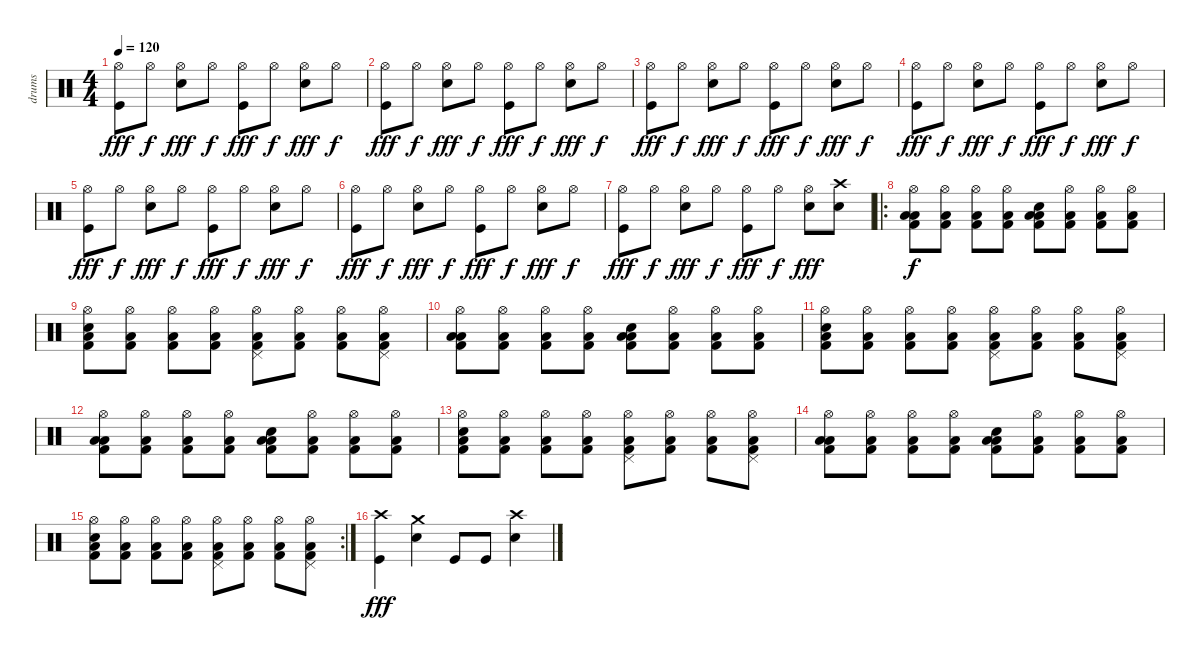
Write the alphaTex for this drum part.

\track ("drums" "drums") {instrument percussion}
\staff {score}
\articulation defaults
\ts (4 4)
\tempo 120
\clef neutral
\ks c
("Hi-Hat (open)" "Kick (hit)").8{dy fff} "Hi-Hat (open)".8{dy f} ("Hi-Hat (open)" "Snare (hit) 2").8{dy fff} "Hi-Hat (open)".8{dy f} ("Hi-Hat (open)" "Kick (hit)").8{dy fff} "Hi-Hat (open)".8{dy f} ("Hi-Hat (open)" "Snare (hit) 2").8{dy fff} "Hi-Hat (open)".8{dy f} |
("Hi-Hat (open)" "Kick (hit)").8{dy fff} "Hi-Hat (open)".8{dy f} ("Hi-Hat (open)" "Snare (hit) 2").8{dy fff} "Hi-Hat (open)".8{dy f} ("Hi-Hat (open)" "Kick (hit)").8{dy fff} "Hi-Hat (open)".8{dy f} ("Hi-Hat (open)" "Snare (hit) 2").8{dy fff} "Hi-Hat (open)".8{dy f} |
("Hi-Hat (open)" "Kick (hit)").8{dy fff} "Hi-Hat (open)".8{dy f} ("Hi-Hat (open)" "Snare (hit) 2").8{dy fff} "Hi-Hat (open)".8{dy f} ("Hi-Hat (open)" "Kick (hit)").8{dy fff} "Hi-Hat (open)".8{dy f} ("Hi-Hat (open)" "Snare (hit) 2").8{dy fff} "Hi-Hat (open)".8{dy f} |
("Hi-Hat (open)" "Kick (hit)").8{dy fff} "Hi-Hat (open)".8{dy f} ("Hi-Hat (open)" "Snare (hit) 2").8{dy fff} "Hi-Hat (open)".8{dy f} ("Hi-Hat (open)" "Kick (hit)").8{dy fff} "Hi-Hat (open)".8{dy f} ("Hi-Hat (open)" "Snare (hit) 2").8{dy fff} "Hi-Hat (open)".8{dy f} |
("Hi-Hat (open)" "Kick (hit)").8{dy fff} "Hi-Hat (open)".8{dy f} ("Hi-Hat (open)" "Snare (hit) 2").8{dy fff} "Hi-Hat (open)".8{dy f} ("Hi-Hat (open)" "Kick (hit)").8{dy fff} "Hi-Hat (open)".8{dy f} ("Hi-Hat (open)" "Snare (hit) 2").8{dy fff} "Hi-Hat (open)".8{dy f} |
("Hi-Hat (open)" "Kick (hit)").8{dy fff} "Hi-Hat (open)".8{dy f} ("Hi-Hat (open)" "Snare (hit) 2").8{dy fff} "Hi-Hat (open)".8{dy f} ("Hi-Hat (open)" "Kick (hit)").8{dy fff} "Hi-Hat (open)".8{dy f} ("Hi-Hat (open)" "Snare (hit) 2").8{dy fff} "Hi-Hat (open)".8{dy f} |
("Hi-Hat (open)" "Kick (hit)").8{dy fff} "Hi-Hat (open)".8{dy f} ("Hi-Hat (open)" "Snare (hit) 2").8{dy fff} "Hi-Hat (open)".8{dy f} ("Hi-Hat (open)" "Kick (hit)").8{dy fff} "Hi-Hat (open)".8{dy f} ("Hi-Hat (open)" "Snare (hit) 2").8{dy fff} ("Crash high (hit)" "Snare (hit) 2").8 |
\ro
("Hi-Hat (open)" "Low Tom (hit)" "Low Floor Tom (hit)" "Kick (hit) 2").8{dy f} ("Hi-Hat (open)" "Low Floor Tom (hit)" "Kick (hit) 2").8 ("Hi-Hat (open)" "Low Floor Tom (hit)" "Kick (hit) 2").8 ("Hi-Hat (open)" "Low Floor Tom (hit)" "Kick (hit) 2").8 ("Snare (hit) 2" "Low Tom (hit)" "Low Floor Tom (hit)" "Kick (hit) 2").8 ("Hi-Hat (open)" "Low Floor Tom (hit)" "Kick (hit) 2").8 ("Hi-Hat (open)" "Low Floor Tom (hit)" "Kick (hit) 2").8 ("Hi-Hat (open)" "Low Floor Tom (hit)" "Kick (hit) 2").8 |
("Hi-Hat (open)" "Snare (hit)" "Low Floor Tom (hit)" "Kick (hit) 2").8 ("Hi-Hat (open)" "Low Floor Tom (hit)" "Kick (hit) 2").8 ("Hi-Hat (open)" "Low Floor Tom (hit)" "Kick (hit) 2").8 ("Hi-Hat (open)" "Low Floor Tom (hit)" "Kick (hit) 2").8 ("Hi-Hat (open)" "Pedal Hi-Hat (hit)" "Low Floor Tom (hit)" "Kick (hit) 2").8 ("Hi-Hat (open)" "Low Floor Tom (hit)" "Kick (hit) 2").8 ("Hi-Hat (open)" "Low Floor Tom (hit)" "Kick (hit) 2").8 ("Hi-Hat (open)" "Pedal Hi-Hat (hit)" "Low Floor Tom (hit)" "Kick (hit) 2").8 |
("Hi-Hat (open)" "Low Tom (hit)" "Low Floor Tom (hit)" "Kick (hit) 2").8 ("Hi-Hat (open)" "Low Floor Tom (hit)" "Kick (hit) 2").8 ("Hi-Hat (open)" "Low Floor Tom (hit)" "Kick (hit) 2").8 ("Hi-Hat (open)" "Low Floor Tom (hit)" "Kick (hit) 2").8 ("Snare (hit) 2" "Low Tom (hit)" "Low Floor Tom (hit)" "Kick (hit) 2").8 ("Hi-Hat (open)" "Low Floor Tom (hit)" "Kick (hit) 2").8 ("Hi-Hat (open)" "Low Floor Tom (hit)" "Kick (hit) 2").8 ("Hi-Hat (open)" "Low Floor Tom (hit)" "Kick (hit) 2").8 |
("Hi-Hat (open)" "Snare (hit)" "Low Floor Tom (hit)" "Kick (hit) 2").8 ("Hi-Hat (open)" "Low Floor Tom (hit)" "Kick (hit) 2").8 ("Hi-Hat (open)" "Low Floor Tom (hit)" "Kick (hit) 2").8 ("Hi-Hat (open)" "Low Floor Tom (hit)" "Kick (hit) 2").8 ("Hi-Hat (open)" "Pedal Hi-Hat (hit)" "Low Floor Tom (hit)" "Kick (hit) 2").8 ("Hi-Hat (open)" "Low Floor Tom (hit)" "Kick (hit) 2").8 ("Hi-Hat (open)" "Low Floor Tom (hit)" "Kick (hit) 2").8 ("Hi-Hat (open)" "Pedal Hi-Hat (hit)" "Low Floor Tom (hit)" "Kick (hit) 2").8 |
("Hi-Hat (open)" "Low Tom (hit)" "Low Floor Tom (hit)" "Kick (hit) 2").8 ("Hi-Hat (open)" "Low Floor Tom (hit)" "Kick (hit) 2").8 ("Hi-Hat (open)" "Low Floor Tom (hit)" "Kick (hit) 2").8 ("Hi-Hat (open)" "Low Floor Tom (hit)" "Kick (hit) 2").8 ("Snare (hit) 2" "Low Tom (hit)" "Low Floor Tom (hit)" "Kick (hit) 2").8 ("Hi-Hat (open)" "Low Floor Tom (hit)" "Kick (hit) 2").8 ("Hi-Hat (open)" "Low Floor Tom (hit)" "Kick (hit) 2").8 ("Hi-Hat (open)" "Low Floor Tom (hit)" "Kick (hit) 2").8 |
("Hi-Hat (open)" "Snare (hit)" "Low Floor Tom (hit)" "Kick (hit) 2").8 ("Hi-Hat (open)" "Low Floor Tom (hit)" "Kick (hit) 2").8 ("Hi-Hat (open)" "Low Floor Tom (hit)" "Kick (hit) 2").8 ("Hi-Hat (open)" "Low Floor Tom (hit)" "Kick (hit) 2").8 ("Hi-Hat (open)" "Pedal Hi-Hat (hit)" "Low Floor Tom (hit)" "Kick (hit) 2").8 ("Hi-Hat (open)" "Low Floor Tom (hit)" "Kick (hit) 2").8 ("Hi-Hat (open)" "Low Floor Tom (hit)" "Kick (hit) 2").8 ("Hi-Hat (open)" "Pedal Hi-Hat (hit)" "Low Floor Tom (hit)" "Kick (hit) 2").8 |
("Hi-Hat (open)" "Low Tom (hit)" "Low Floor Tom (hit)" "Kick (hit) 2").8 ("Hi-Hat (open)" "Low Floor Tom (hit)" "Kick (hit) 2").8 ("Hi-Hat (open)" "Low Floor Tom (hit)" "Kick (hit) 2").8 ("Hi-Hat (open)" "Low Floor Tom (hit)" "Kick (hit) 2").8 ("Snare (hit) 2" "Low Tom (hit)" "Low Floor Tom (hit)" "Kick (hit) 2").8 ("Hi-Hat (open)" "Low Floor Tom (hit)" "Kick (hit) 2").8 ("Hi-Hat (open)" "Low Floor Tom (hit)" "Kick (hit) 2").8 ("Hi-Hat (open)" "Low Floor Tom (hit)" "Kick (hit) 2").8 |
\rc 2
("Hi-Hat (open)" "Snare (hit)" "Low Floor Tom (hit)" "Kick (hit) 2").8 ("Hi-Hat (open)" "Low Floor Tom (hit)" "Kick (hit) 2").8 ("Hi-Hat (open)" "Low Floor Tom (hit)" "Kick (hit) 2").8 ("Hi-Hat (open)" "Low Floor Tom (hit)" "Kick (hit) 2").8 ("Hi-Hat (open)" "Pedal Hi-Hat (hit)" "Low Floor Tom (hit)" "Kick (hit) 2").8 ("Hi-Hat (open)" "Low Floor Tom (hit)" "Kick (hit) 2").8 ("Hi-Hat (open)" "Low Floor Tom (hit)" "Kick (hit) 2").8 ("Hi-Hat (open)" "Pedal Hi-Hat (hit)" "Low Floor Tom (hit)" "Kick (hit) 2").8 |
("Crash high (hit)" "Kick (hit)").4{dy fff} ("Crash medium (hit)" "Snare (hit) 2").4 "Kick (hit)".8 "Kick (hit)".8 ("Crash high (hit)" "Snare (hit) 2").4
